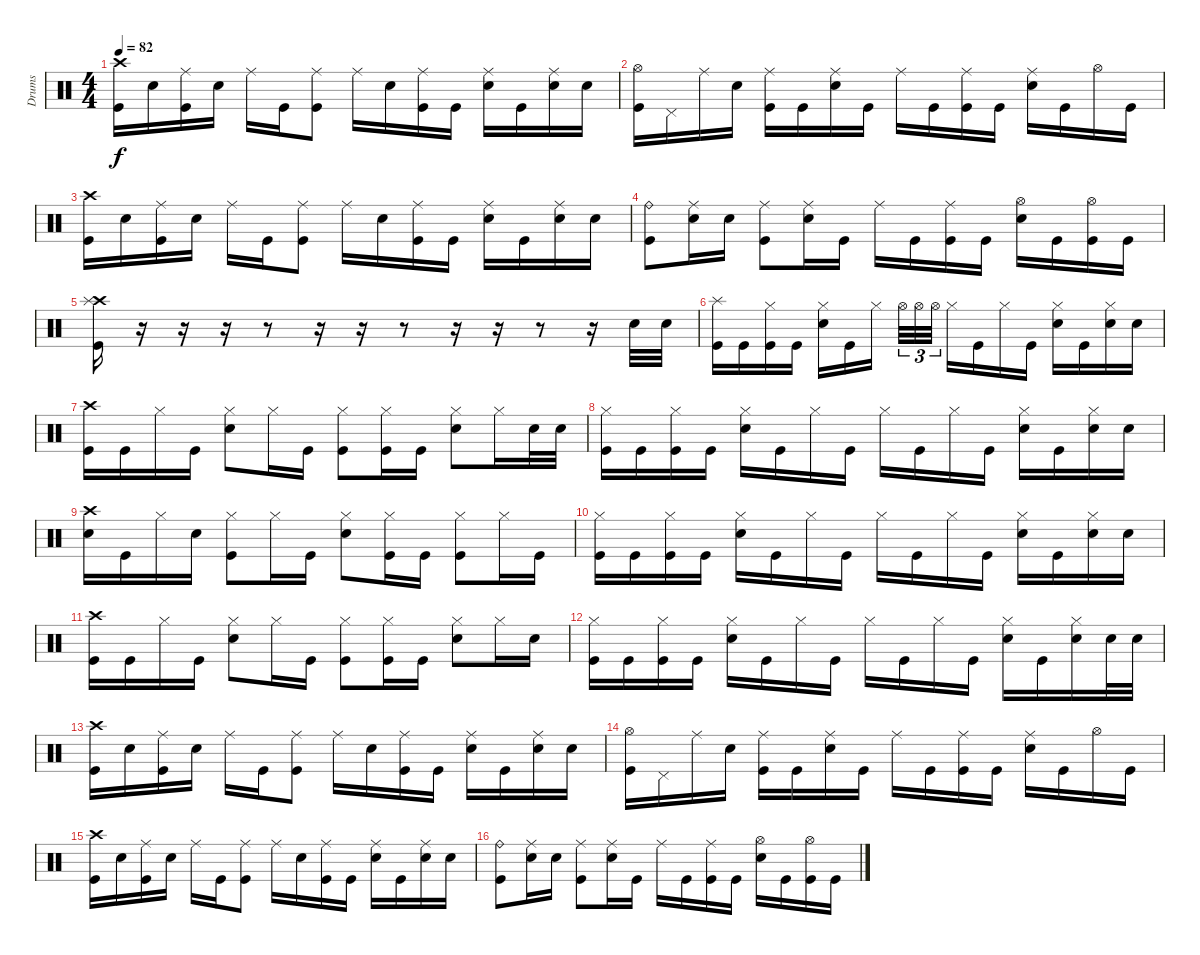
\track ("Drums" "Drums") {instrument percussion}
\staff {score}
\articulation defaults
\ts (4 4)
\tempo 82
\clef neutral
\ks c
("Crash high (hit)" "Kick (hit)").16{dy f} "Electric Snare (hit)".16 ("Ride (middle)" "Kick (hit)").16 "Electric Snare (hit)".16 "Ride (middle)".16 "Kick (hit)".16 ("Ride (middle)" "Kick (hit)").8 "Ride (middle)".16 "Electric Snare (hit)".16 ("Ride (middle)" "Kick (hit)").16 "Kick (hit)".16 ("Ride (middle)" "Electric Snare (hit)").16 "Kick (hit)".16 ("Ride (middle)" "Electric Snare (hit)").16 "Electric Snare (hit)".16 |
("Hi-Hat (open)" "Kick (hit)").16 "Pedal Hi-Hat (hit)".16 "Ride (middle)".16 "Electric Snare (hit)".16 ("Ride (middle)" "Kick (hit)").16 "Kick (hit)".16 ("Ride (middle)" "Electric Snare (hit)").16 "Kick (hit)".16 "Ride (middle)".16 "Kick (hit)".16 ("Ride (middle)" "Kick (hit)").16 "Kick (hit)".16 ("Ride (middle)" "Electric Snare (hit)").16 "Kick (hit)".16 "Hi-Hat (open)".16 "Kick (hit)".16 |
("Crash high (hit)" "Kick (hit)").16 "Electric Snare (hit)".16 ("Ride (middle)" "Kick (hit)").16 "Electric Snare (hit)".16 "Ride (middle)".16 "Kick (hit)".16 ("Ride (middle)" "Kick (hit)").8 "Ride (middle)".16 "Electric Snare (hit)".16 ("Ride (middle)" "Kick (hit)").16 "Kick (hit)".16 ("Ride (middle)" "Electric Snare (hit)").16 "Kick (hit)".16 ("Ride (middle)" "Electric Snare (hit)").16 "Electric Snare (hit)".16 |
("Ride (bell)" "Kick (hit)").8 ("Ride (middle)" "Electric Snare (hit)").16 "Electric Snare (hit)".16 ("Ride (middle)" "Kick (hit)").8 ("Ride (middle)" "Electric Snare (hit)").16 "Kick (hit)".16 "Ride (middle)".16 "Kick (hit)".16 ("Ride (middle)" "Kick (hit)").16 "Kick (hit)".16 ("Hi-Hat (open)" "Electric Snare (hit)").16 "Kick (hit)".16 ("Hi-Hat (open)" "Kick (hit)").16 "Kick (hit)".16 |
("Crash high (hit)" "Splash (hit)" "Kick (hit)").16 r.16 r.16 r.16 r.8 r.16 r.16 r.8 r.16 r.16 r.8 r.16 "Electric Snare (hit)".32 "Electric Snare (hit)".32 |
("Splash (hit)" "Kick (hit)").16 "Kick (hit)".16 ("Hi-Hat (closed)" "Kick (hit)").16 "Kick (hit)".16 ("Hi-Hat (closed)" "Electric Snare (hit)").16 "Kick (hit)".16 "Hi-Hat (closed)".16 "Hi-Hat (open)".32{tu (3 2)} "Hi-Hat (open)".32{tu (3 2)} "Hi-Hat (open)".32{tu (3 2)} "Hi-Hat (closed)".16 "Kick (hit)".16 "Hi-Hat (closed)".16 "Kick (hit)".16 ("Hi-Hat (closed)" "Electric Snare (hit)").16 "Kick (hit)".16 ("Hi-Hat (closed)" "Electric Snare (hit)").16 "Electric Snare (hit)".16 |
("Crash high (hit)" "Kick (hit)").16 "Kick (hit)".16 "Hi-Hat (closed)".16 "Kick (hit)".16 ("Hi-Hat (closed)" "Electric Snare (hit)").8 "Hi-Hat (closed)".16 "Kick (hit)".16 ("Hi-Hat (closed)" "Kick (hit)").8 ("Hi-Hat (closed)" "Kick (hit)").16 "Kick (hit)".16 ("Hi-Hat (closed)" "Electric Snare (hit)").8 "Hi-Hat (closed)".16 "Electric Snare (hit)".32 "Electric Snare (hit)".32 |
("Hi-Hat (closed)" "Kick (hit)").16 "Kick (hit)".16 ("Hi-Hat (closed)" "Kick (hit)").16 "Kick (hit)".16 ("Hi-Hat (closed)" "Electric Snare (hit)").16 "Kick (hit)".16 "Hi-Hat (closed)".16 "Kick (hit)".16 "Hi-Hat (closed)".16 "Kick (hit)".16 "Hi-Hat (closed)".16 "Kick (hit)".16 ("Hi-Hat (closed)" "Electric Snare (hit)").16 "Kick (hit)".16 ("Hi-Hat (closed)" "Electric Snare (hit)").16 "Electric Snare (hit)".16 |
("Crash high (hit)" "Electric Snare (hit)").16 "Kick (hit)".16 "Hi-Hat (closed)".16 "Electric Snare (hit)".16 ("Hi-Hat (closed)" "Kick (hit)").8 "Hi-Hat (closed)".16 "Kick (hit)".16 ("Hi-Hat (closed)" "Electric Snare (hit)").8 ("Hi-Hat (closed)" "Kick (hit)").16 "Kick (hit)".16 ("Hi-Hat (closed)" "Kick (hit)").8 "Hi-Hat (closed)".16 "Kick (hit)".16 |
("Hi-Hat (closed)" "Kick (hit)").16 "Kick (hit)".16 ("Hi-Hat (closed)" "Kick (hit)").16 "Kick (hit)".16 ("Hi-Hat (closed)" "Electric Snare (hit)").16 "Kick (hit)".16 "Hi-Hat (closed)".16 "Kick (hit)".16 "Hi-Hat (closed)".16 "Kick (hit)".16 "Hi-Hat (closed)".16 "Kick (hit)".16 ("Hi-Hat (closed)" "Electric Snare (hit)").16 "Kick (hit)".16 ("Hi-Hat (closed)" "Electric Snare (hit)").16 "Electric Snare (hit)".16 |
("Crash high (hit)" "Kick (hit)").16 "Kick (hit)".16 "Hi-Hat (closed)".16 "Kick (hit)".16 ("Hi-Hat (closed)" "Electric Snare (hit)").8 "Hi-Hat (closed)".16 "Kick (hit)".16 ("Hi-Hat (closed)" "Kick (hit)").8 ("Hi-Hat (closed)" "Kick (hit)").16 "Kick (hit)".16 ("Hi-Hat (closed)" "Electric Snare (hit)").8 "Hi-Hat (closed)".16 "Electric Snare (hit)".16 |
("Hi-Hat (closed)" "Kick (hit)").16 "Kick (hit)".16 ("Hi-Hat (closed)" "Kick (hit)").16 "Kick (hit)".16 ("Hi-Hat (closed)" "Electric Snare (hit)").16 "Kick (hit)".16 "Hi-Hat (closed)".16 "Kick (hit)".16 "Hi-Hat (closed)".16 "Kick (hit)".16 "Hi-Hat (closed)".16 "Kick (hit)".16 ("Hi-Hat (closed)" "Electric Snare (hit)").16 "Kick (hit)".16 ("Hi-Hat (closed)" "Electric Snare (hit)").16 "Electric Snare (hit)".32 "Electric Snare (hit)".32 |
("Crash high (hit)" "Kick (hit)").16 "Electric Snare (hit)".16 ("Ride (middle)" "Kick (hit)").16 "Electric Snare (hit)".16 "Ride (middle)".16 "Kick (hit)".16 ("Ride (middle)" "Kick (hit)").8 "Ride (middle)".16 "Electric Snare (hit)".16 ("Ride (middle)" "Kick (hit)").16 "Kick (hit)".16 ("Ride (middle)" "Electric Snare (hit)").16 "Kick (hit)".16 ("Ride (middle)" "Electric Snare (hit)").16 "Electric Snare (hit)".16 |
("Hi-Hat (open)" "Kick (hit)").16 "Pedal Hi-Hat (hit)".16 "Ride (middle)".16 "Electric Snare (hit)".16 ("Ride (middle)" "Kick (hit)").16 "Kick (hit)".16 ("Ride (middle)" "Electric Snare (hit)").16 "Kick (hit)".16 "Ride (middle)".16 "Kick (hit)".16 ("Ride (middle)" "Kick (hit)").16 "Kick (hit)".16 ("Ride (middle)" "Electric Snare (hit)").16 "Kick (hit)".16 "Hi-Hat (open)".16 "Kick (hit)".16 |
("Crash high (hit)" "Kick (hit)").16 "Electric Snare (hit)".16 ("Ride (middle)" "Kick (hit)").16 "Electric Snare (hit)".16 "Ride (middle)".16 "Kick (hit)".16 ("Ride (middle)" "Kick (hit)").8 "Ride (middle)".16 "Electric Snare (hit)".16 ("Ride (middle)" "Kick (hit)").16 "Kick (hit)".16 ("Ride (middle)" "Electric Snare (hit)").16 "Kick (hit)".16 ("Ride (middle)" "Electric Snare (hit)").16 "Electric Snare (hit)".16 |
("Ride (bell)" "Kick (hit)").8 ("Ride (middle)" "Electric Snare (hit)").16 "Electric Snare (hit)".16 ("Ride (middle)" "Kick (hit)").8 ("Ride (middle)" "Electric Snare (hit)").16 "Kick (hit)".16 "Ride (middle)".16 "Kick (hit)".16 ("Ride (middle)" "Kick (hit)").16 "Kick (hit)".16 ("Hi-Hat (open)" "Electric Snare (hit)").16 "Kick (hit)".16 ("Hi-Hat (open)" "Kick (hit)").16 "Kick (hit)".16
